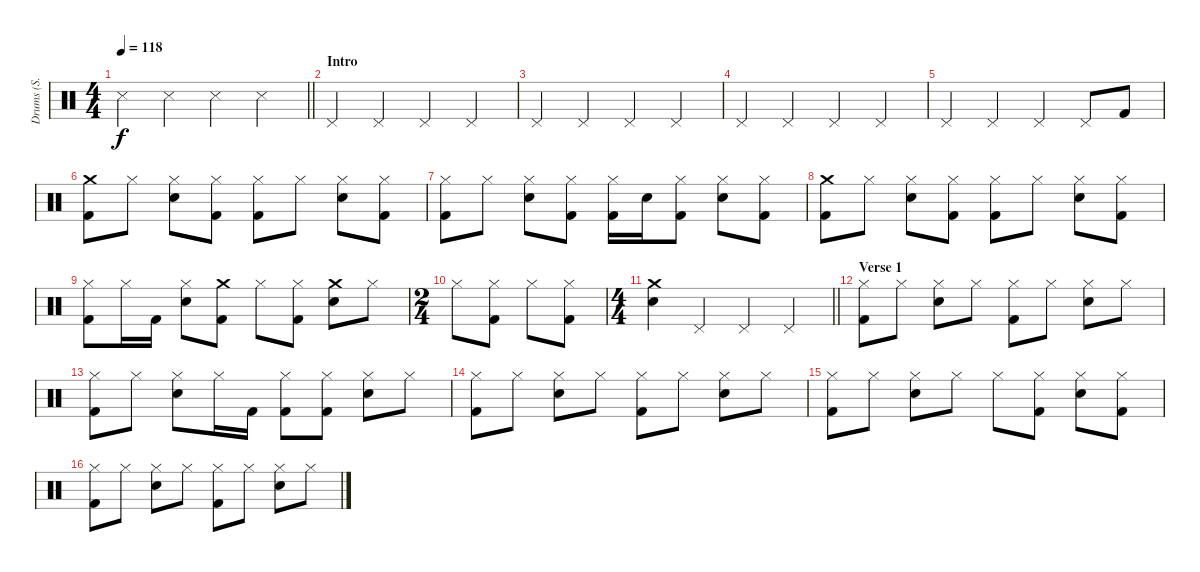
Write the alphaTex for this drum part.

\track ("Drums (S. Rockenfield)" "Drums (S. ") {instrument percussion}
\staff {score}
\articulation defaults
\ts (4 4)
\tempo 118
\clef neutral
\barLineRight lightlight
\ks c "Metronome (hit)".4{dy f} "Metronome (hit)".4 "Metronome (hit)".4 "Metronome (hit)".4
|
\section ("" "Intro")
"Pedal Hi-Hat (hit)".4 "Pedal Hi-Hat (hit)".4 "Pedal Hi-Hat (hit)".4 "Pedal Hi-Hat (hit)".4 |
"Pedal Hi-Hat (hit)".4 "Pedal Hi-Hat (hit)".4 "Pedal Hi-Hat (hit)".4 "Pedal Hi-Hat (hit)".4 |
"Pedal Hi-Hat (hit)".4 "Pedal Hi-Hat (hit)".4 "Pedal Hi-Hat (hit)".4 "Pedal Hi-Hat (hit)".4 |
"Pedal Hi-Hat (hit)".4 "Pedal Hi-Hat (hit)".4 "Pedal Hi-Hat (hit)".4 "Pedal Hi-Hat (hit)".8 "Kick (hit) 2".8 |
("Crash medium (hit)" "Kick (hit) 2").8 "Hi-Hat (closed)".8 ("Hi-Hat (closed)" "Snare (hit) 2").8 ("Hi-Hat (closed)" "Kick (hit) 2").8 ("Hi-Hat (closed)" "Kick (hit) 2").8 "Hi-Hat (closed)".8 ("Hi-Hat (closed)" "Snare (hit) 2").8 ("Hi-Hat (closed)" "Kick (hit) 2").8 |
("Hi-Hat (closed)" "Kick (hit) 2").8 "Hi-Hat (closed)".8 ("Hi-Hat (closed)" "Snare (hit) 2").8 ("Hi-Hat (closed)" "Kick (hit) 2").8 ("Hi-Hat (closed)" "Kick (hit) 2").16 "Snare (hit) 2".16 ("Hi-Hat (closed)" "Kick (hit) 2").8 ("Hi-Hat (closed)" "Snare (hit) 2").8 ("Hi-Hat (closed)" "Kick (hit) 2").8 |
("Crash medium (hit)" "Kick (hit) 2").8 "Hi-Hat (closed)".8 ("Hi-Hat (closed)" "Snare (hit) 2").8 ("Hi-Hat (closed)" "Kick (hit) 2").8 ("Hi-Hat (closed)" "Kick (hit) 2").8 "Hi-Hat (closed)".8 ("Hi-Hat (closed)" "Snare (hit) 2").8 ("Hi-Hat (closed)" "Kick (hit) 2").8 |
("Hi-Hat (closed)" "Kick (hit) 2").8 "Hi-Hat (closed)".16 "Kick (hit) 2".16 ("Hi-Hat (closed)" "Snare (hit) 2").8 ("Crash medium (hit)" "Kick (hit) 2").8 "Hi-Hat (closed)".8 ("Hi-Hat (closed)" "Kick (hit) 2").8 ("Crash medium (hit)" "Snare (hit) 2").8 "Hi-Hat (closed)".8 |
\ts (2 4)
"Hi-Hat (closed)".8 ("Hi-Hat (closed)" "Kick (hit) 2").8 "Hi-Hat (closed)".8 ("Hi-Hat (closed)" "Kick (hit) 2").8 |
\ts (4 4)
\barLineRight lightlight
("Crash medium (hit)" "Snare (hit) 2").4 "Pedal Hi-Hat (hit)".4 "Pedal Hi-Hat (hit)".4 "Pedal Hi-Hat (hit)".4 |
\section ("" "Verse 1")
("Hi-Hat (closed)" "Kick (hit) 2").8 "Hi-Hat (closed)".8 ("Hi-Hat (closed)" "Snare (hit) 2").8 "Hi-Hat (closed)".8 ("Hi-Hat (closed)" "Kick (hit) 2").8 "Hi-Hat (closed)".8 ("Hi-Hat (closed)" "Snare (hit) 2").8 "Hi-Hat (closed)".8 |
("Hi-Hat (closed)" "Kick (hit) 2").8 "Hi-Hat (closed)".8 ("Hi-Hat (closed)" "Snare (hit) 2").8 "Hi-Hat (closed)".16 "Kick (hit) 2".16 ("Hi-Hat (closed)" "Kick (hit) 2").8 ("Hi-Hat (closed)" "Kick (hit) 2").8 ("Hi-Hat (closed)" "Snare (hit) 2").8 "Hi-Hat (closed)".8 |
("Hi-Hat (closed)" "Kick (hit) 2").8 "Hi-Hat (closed)".8 ("Hi-Hat (closed)" "Snare (hit) 2").8 "Hi-Hat (closed)".8 ("Hi-Hat (closed)" "Kick (hit) 2").8 "Hi-Hat (closed)".8 ("Hi-Hat (closed)" "Snare (hit) 2").8 "Hi-Hat (closed)".8 |
("Hi-Hat (closed)" "Kick (hit) 2").8 "Hi-Hat (closed)".8 ("Hi-Hat (closed)" "Snare (hit) 2").8 "Hi-Hat (closed)".8 "Hi-Hat (closed)".8 ("Hi-Hat (closed)" "Kick (hit) 2").8 ("Hi-Hat (closed)" "Snare (hit) 2").8 ("Hi-Hat (closed)" "Kick (hit) 2").8 |
("Hi-Hat (closed)" "Kick (hit) 2").8 "Hi-Hat (closed)".8 ("Hi-Hat (closed)" "Snare (hit) 2").8 "Hi-Hat (closed)".8 ("Hi-Hat (closed)" "Kick (hit) 2").8 "Hi-Hat (closed)".8 ("Hi-Hat (closed)" "Snare (hit) 2").8 "Hi-Hat (closed)".8
